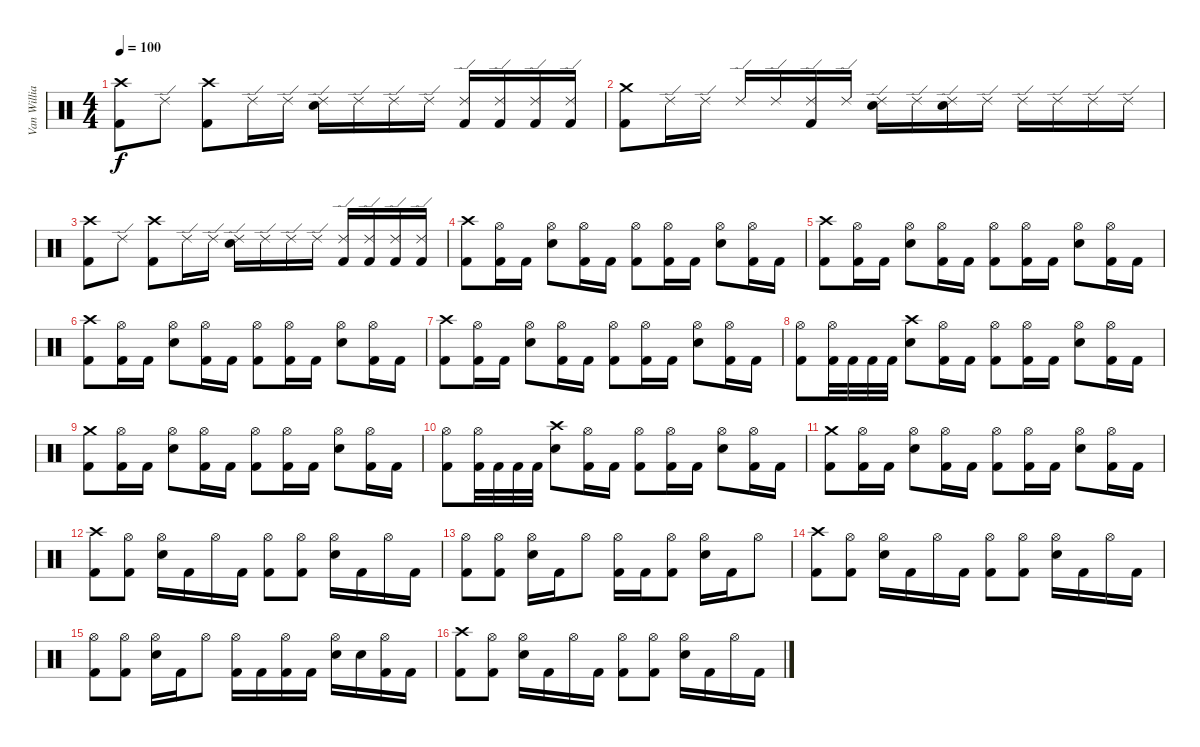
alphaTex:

\track ("Van Williams" "Van Willia") {instrument percussion}
\staff {score}
\articulation defaults
\ts (4 4)
\tempo 100
\clef neutral
\ks c
("Crash high (hit)" "Kick (hit) 2").8{dy f} "Ride (edge) 2".8 ("Crash high (hit)" "Kick (hit) 2").8 "Ride (edge) 2".16 "Ride (edge) 2".16 ("Ride (edge) 2" "Electric Snare (hit)").16 "Ride (edge) 2".16 "Ride (edge) 2".16 "Ride (edge) 2".16 ("Ride (edge) 2" "Kick (hit) 2").16 ("Ride (edge) 2" "Kick (hit) 2").16 ("Ride (edge) 2" "Kick (hit) 2").16 ("Ride (edge) 2" "Kick (hit) 2").16 |
("Crash medium (hit)" "Kick (hit) 2").8 "Ride (edge) 2".16 "Ride (edge) 2".16 "Ride (edge) 2".16 "Ride (edge) 2".16 ("Ride (edge) 2" "Kick (hit) 2").16 "Ride (edge) 2".16 ("Ride (edge) 2" "Electric Snare (hit)").16 "Ride (edge) 2".16 ("Ride (edge) 2" "Electric Snare (hit)").16 "Ride (edge) 2".16 "Ride (edge) 2".16 "Ride (edge) 2".16 "Ride (edge) 2".16 "Ride (edge) 2".16 |
("Crash high (hit)" "Kick (hit) 2").8 "Ride (edge) 2".8 ("Crash high (hit)" "Kick (hit) 2").8 "Ride (edge) 2".16 "Ride (edge) 2".16 ("Ride (edge) 2" "Electric Snare (hit)").16 "Ride (edge) 2".16 "Ride (edge) 2".16 "Ride (edge) 2".16 ("Ride (edge) 2" "Kick (hit) 2").16 ("Ride (edge) 2" "Kick (hit) 2").16 ("Ride (edge) 2" "Kick (hit) 2").16 ("Ride (edge) 2" "Kick (hit) 2").16 |
("Crash high (hit)" "Kick (hit) 2").8 ("Hi-Hat (open)" "Kick (hit) 2").16 "Kick (hit) 2".16 ("Hi-Hat (open)" "Electric Snare (hit)").8 ("Hi-Hat (open)" "Kick (hit) 2").16 "Kick (hit) 2".16 ("Hi-Hat (open)" "Kick (hit) 2").8 ("Hi-Hat (open)" "Kick (hit) 2").16 "Kick (hit) 2".16 ("Hi-Hat (open)" "Electric Snare (hit)").8 ("Hi-Hat (open)" "Kick (hit) 2").16 "Kick (hit) 2".16 |
("Crash high (hit)" "Kick (hit) 2").8 ("Hi-Hat (open)" "Kick (hit) 2").16 "Kick (hit) 2".16 ("Hi-Hat (open)" "Electric Snare (hit)").8 ("Hi-Hat (open)" "Kick (hit) 2").16 "Kick (hit) 2".16 ("Hi-Hat (open)" "Kick (hit) 2").8 ("Hi-Hat (open)" "Kick (hit) 2").16 "Kick (hit) 2".16 ("Hi-Hat (open)" "Electric Snare (hit)").8 ("Hi-Hat (open)" "Kick (hit) 2").16 "Kick (hit) 2".16 |
("Crash high (hit)" "Kick (hit) 2").8 ("Hi-Hat (open)" "Kick (hit) 2").16 "Kick (hit) 2".16 ("Hi-Hat (open)" "Electric Snare (hit)").8 ("Hi-Hat (open)" "Kick (hit) 2").16 "Kick (hit) 2".16 ("Hi-Hat (open)" "Kick (hit) 2").8 ("Hi-Hat (open)" "Kick (hit) 2").16 "Kick (hit) 2".16 ("Hi-Hat (open)" "Electric Snare (hit)").8 ("Hi-Hat (open)" "Kick (hit) 2").16 "Kick (hit) 2".16 |
("Crash high (hit)" "Kick (hit) 2").8 ("Hi-Hat (open)" "Kick (hit) 2").16 "Kick (hit) 2".16 ("Hi-Hat (open)" "Electric Snare (hit)").8 ("Hi-Hat (open)" "Kick (hit) 2").16 "Kick (hit) 2".16 ("Hi-Hat (open)" "Kick (hit) 2").8 ("Hi-Hat (open)" "Kick (hit) 2").16 "Kick (hit) 2".16 ("Hi-Hat (open)" "Electric Snare (hit)").8 ("Hi-Hat (open)" "Kick (hit) 2").16 "Kick (hit) 2".16 |
("Hi-Hat (open)" "Kick (hit) 2").8 ("Hi-Hat (open)" "Kick (hit) 2").32 "Kick (hit) 2".32 "Kick (hit) 2".32 "Kick (hit) 2".32 ("Crash high (hit)" "Electric Snare (hit)").8 ("Hi-Hat (open)" "Kick (hit) 2").16 "Kick (hit) 2".16 ("Hi-Hat (open)" "Kick (hit) 2").8 ("Hi-Hat (open)" "Kick (hit) 2").16 "Kick (hit) 2".16 ("Hi-Hat (open)" "Electric Snare (hit)").8 ("Hi-Hat (open)" "Kick (hit) 2").16 "Kick (hit) 2".16 |
("Crash medium (hit)" "Kick (hit) 2").8 ("Hi-Hat (open)" "Kick (hit) 2").16 "Kick (hit) 2".16 ("Hi-Hat (open)" "Electric Snare (hit)").8 ("Hi-Hat (open)" "Kick (hit) 2").16 "Kick (hit) 2".16 ("Hi-Hat (open)" "Kick (hit) 2").8 ("Hi-Hat (open)" "Kick (hit) 2").16 "Kick (hit) 2".16 ("Hi-Hat (open)" "Electric Snare (hit)").8 ("Hi-Hat (open)" "Kick (hit) 2").16 "Kick (hit) 2".16 |
("Hi-Hat (open)" "Kick (hit) 2").8 ("Hi-Hat (open)" "Kick (hit) 2").32 "Kick (hit) 2".32 "Kick (hit) 2".32 "Kick (hit) 2".32 ("Crash high (hit)" "Electric Snare (hit)").8 ("Hi-Hat (open)" "Kick (hit) 2").16 "Kick (hit) 2".16 ("Hi-Hat (open)" "Kick (hit) 2").8 ("Hi-Hat (open)" "Kick (hit) 2").16 "Kick (hit) 2".16 ("Hi-Hat (open)" "Electric Snare (hit)").8 ("Hi-Hat (open)" "Kick (hit) 2").16 "Kick (hit) 2".16 |
("Crash medium (hit)" "Kick (hit) 2").8 ("Hi-Hat (open)" "Kick (hit) 2").16 "Kick (hit) 2".16 ("Hi-Hat (open)" "Electric Snare (hit)").8 ("Hi-Hat (open)" "Kick (hit) 2").16 "Kick (hit) 2".16 ("Hi-Hat (open)" "Kick (hit) 2").8 ("Hi-Hat (open)" "Kick (hit) 2").16 "Kick (hit) 2".16 ("Hi-Hat (open)" "Electric Snare (hit)").8 ("Hi-Hat (open)" "Kick (hit) 2").16 "Kick (hit) 2".16 |
("Crash high (hit)" "Kick (hit) 2").8 ("Hi-Hat (open)" "Kick (hit) 2").8 ("Hi-Hat (open)" "Electric Snare (hit)").16 "Kick (hit) 2".16 "Hi-Hat (open)".16 "Kick (hit) 2".16 ("Hi-Hat (open)" "Kick (hit) 2").8 ("Hi-Hat (open)" "Kick (hit) 2").8 ("Hi-Hat (open)" "Electric Snare (hit)").16 "Kick (hit) 2".16 "Hi-Hat (open)".16 "Kick (hit) 2".16 |
("Hi-Hat (open)" "Kick (hit) 2").8 ("Hi-Hat (open)" "Kick (hit) 2").8 ("Hi-Hat (open)" "Electric Snare (hit)").16 "Kick (hit) 2".16 "Hi-Hat (open)".8 ("Hi-Hat (open)" "Kick (hit) 2").16 "Kick (hit) 2".16 ("Hi-Hat (open)" "Kick (hit) 2").8 ("Hi-Hat (open)" "Electric Snare (hit)").16 "Kick (hit) 2".16 "Hi-Hat (open)".8 |
("Crash high (hit)" "Kick (hit) 2").8 ("Hi-Hat (open)" "Kick (hit) 2").8 ("Hi-Hat (open)" "Electric Snare (hit)").16 "Kick (hit) 2".16 "Hi-Hat (open)".16 "Kick (hit) 2".16 ("Hi-Hat (open)" "Kick (hit) 2").8 ("Hi-Hat (open)" "Kick (hit) 2").8 ("Hi-Hat (open)" "Electric Snare (hit)").16 "Kick (hit) 2".16 "Hi-Hat (open)".16 "Kick (hit) 2".16 |
("Hi-Hat (open)" "Kick (hit) 2").8 ("Hi-Hat (open)" "Kick (hit) 2").8 ("Hi-Hat (open)" "Electric Snare (hit)").16 "Kick (hit) 2".16 "Hi-Hat (open)".8 ("Hi-Hat (open)" "Kick (hit) 2").16 "Kick (hit) 2".16 ("Hi-Hat (open)" "Kick (hit) 2").16 "Kick (hit) 2".16 ("Hi-Hat (open)" "Electric Snare (hit)").16 "Electric Snare (hit)".16 ("Hi-Hat (open)" "Kick (hit) 2").16 "Kick (hit) 2".16 |
("Crash high (hit)" "Kick (hit) 2").8 ("Hi-Hat (open)" "Kick (hit) 2").8 ("Hi-Hat (open)" "Electric Snare (hit)").16 "Kick (hit) 2".16 "Hi-Hat (open)".16 "Kick (hit) 2".16 ("Hi-Hat (open)" "Kick (hit) 2").8 ("Hi-Hat (open)" "Kick (hit) 2").8 ("Hi-Hat (open)" "Electric Snare (hit)").16 "Kick (hit) 2".16 "Hi-Hat (open)".16 "Kick (hit) 2".16
